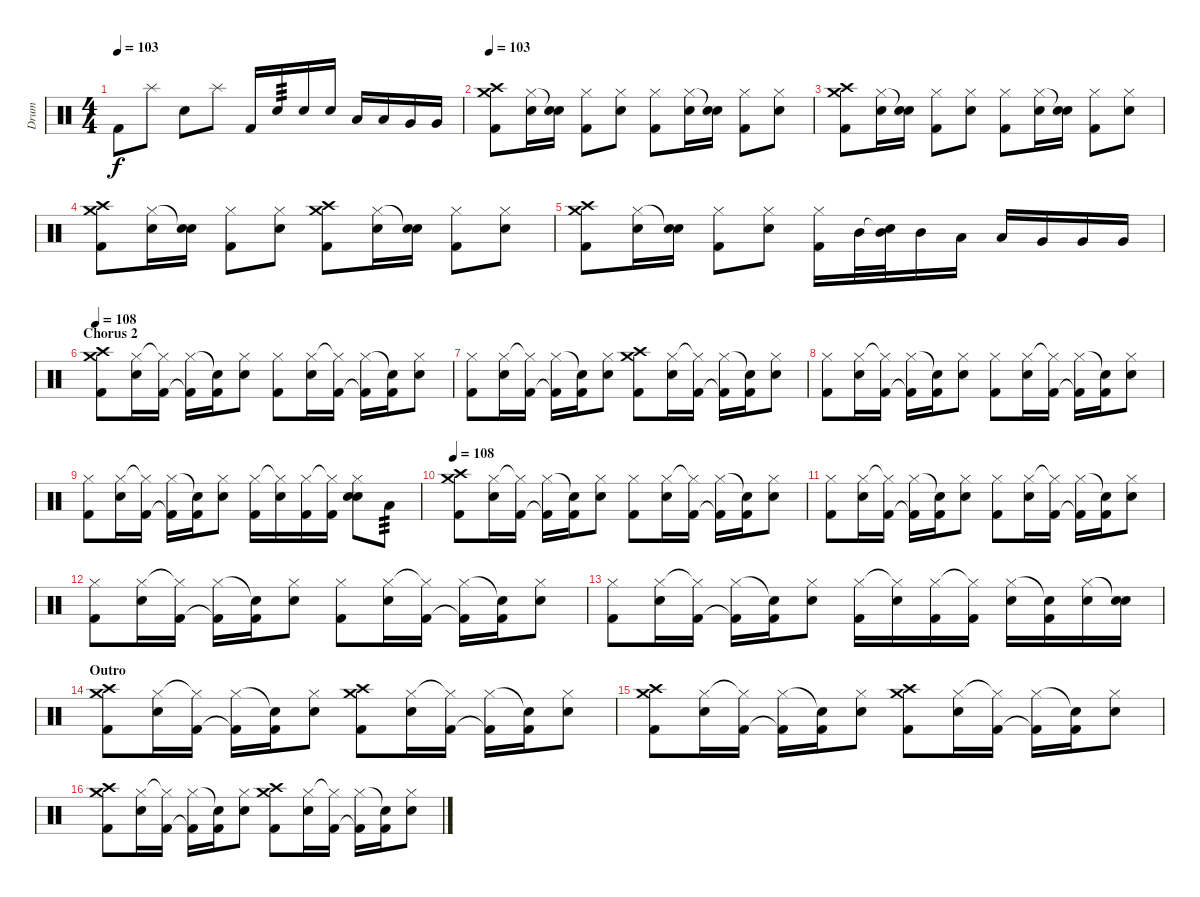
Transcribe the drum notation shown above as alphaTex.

\track ("Drum" "Drum") {instrument percussion}
\staff {score}
\articulation defaults
\ts (4 4)
\tempo 103
\clef neutral
\ks c "Kick (hit) 2".8{dy f} "Splash (hit)".8 "Electric Snare (hit)".8 "Splash (hit)".8 "Kick (hit) 2".16 "Electric Snare (hit)".16{tp 3} "Electric Snare (hit)".16 "Electric Snare (hit)".16 "Low Tom (hit)".16 "Low Tom (hit)".16 "Very Low Tom (hit)".16 "Very Low Tom (hit)".16
|
\tempo 103
("Crash medium (hit)" "Crash high (hit)" "Kick (hit) 2").8 ("Hi-Hat (closed)" "Electric Snare (hit)").16 ("Snare (hit)"{t} "Electric Snare (hit)").16 ("Hi-Hat (closed)" "Kick (hit) 2").8 ("Hi-Hat (closed)" "Electric Snare (hit)").8 ("Hi-Hat (closed)" "Kick (hit) 2").8 ("Hi-Hat (closed)" "Electric Snare (hit)").16 ("Snare (hit)"{t} "Electric Snare (hit)").16 ("Hi-Hat (closed)" "Kick (hit) 2").8 ("Hi-Hat (closed)" "Electric Snare (hit)").8 |
("Crash medium (hit)" "Crash high (hit)" "Kick (hit) 2").8 ("Hi-Hat (closed)" "Electric Snare (hit)").16 ("Snare (hit)"{t} "Electric Snare (hit)").16 ("Hi-Hat (closed)" "Kick (hit) 2").8 ("Hi-Hat (closed)" "Electric Snare (hit)").8 ("Hi-Hat (closed)" "Kick (hit) 2").8 ("Hi-Hat (closed)" "Electric Snare (hit)").16 ("Snare (hit)"{t} "Electric Snare (hit)").16 ("Hi-Hat (closed)" "Kick (hit) 2").8 ("Hi-Hat (closed)" "Electric Snare (hit)").8 |
("Crash medium (hit)" "Crash high (hit)" "Kick (hit) 2").8 ("Hi-Hat (closed)" "Electric Snare (hit)").16 ("Snare (hit)"{t} "Electric Snare (hit)").16 ("Hi-Hat (closed)" "Kick (hit) 2").8 ("Hi-Hat (closed)" "Electric Snare (hit)").8 ("Crash medium (hit)" "Crash high (hit)" "Kick (hit) 2").8 ("Hi-Hat (closed)" "Electric Snare (hit)").16 ("Snare (hit)"{t} "Electric Snare (hit)").16 ("Hi-Hat (closed)" "Kick (hit) 2").8 ("Hi-Hat (closed)" "Electric Snare (hit)").8 |
("Crash medium (hit)" "Crash high (hit)" "Kick (hit) 2").8 ("Hi-Hat (closed)" "Electric Snare (hit)").16 ("Snare (hit)"{t} "Electric Snare (hit)").16 ("Hi-Hat (closed)" "Kick (hit) 2").8 ("Hi-Hat (closed)" "Electric Snare (hit)").8 ("Hi-Hat (closed)" "Kick (hit) 2").16 "Mid Tom (hit)".32 ("Snare (hit)"{t} "Mid Tom (hit)").32 "Mid Tom (hit)".16 "Low Tom (hit)".16 "Low Tom (hit)".16 "Very Low Tom (hit)".16 "Very Low Tom (hit)".16 "Very Low Tom (hit)".16 |
\section ("" "Chorus 2")
\tempo 108
("Crash medium (hit)" "Crash high (hit)" "Kick (hit) 2").8 ("Hi-Hat (closed)" "Electric Snare (hit)").16 ("Hi-Hat (closed)"{t} "Kick (hit) 2").16 ("Hi-Hat (closed)" "Kick (hit) 2"{t}).16 ("Snare (hit)"{t} "Kick (hit) 2").16 ("Hi-Hat (closed)" "Electric Snare (hit)").8 ("Hi-Hat (closed)" "Kick (hit) 2").8 ("Hi-Hat (closed)" "Electric Snare (hit)").16 ("Hi-Hat (closed)"{t} "Kick (hit) 2").16 ("Hi-Hat (closed)" "Kick (hit) 2"{t}).16 ("Snare (hit)"{t} "Kick (hit) 2").16 ("Hi-Hat (closed)" "Electric Snare (hit)").8 |
("Hi-Hat (closed)" "Kick (hit) 2").8 ("Hi-Hat (closed)" "Electric Snare (hit)").16 ("Hi-Hat (closed)"{t} "Kick (hit) 2").16 ("Hi-Hat (closed)" "Kick (hit) 2"{t}).16 ("Snare (hit)"{t} "Kick (hit) 2").16 ("Hi-Hat (closed)" "Electric Snare (hit)").8 ("Crash medium (hit)" "Crash high (hit)" "Kick (hit) 2").8 ("Hi-Hat (closed)" "Electric Snare (hit)").16 ("Hi-Hat (closed)"{t} "Kick (hit) 2").16 ("Hi-Hat (closed)" "Kick (hit) 2"{t}).16 ("Snare (hit)"{t} "Kick (hit) 2").16 ("Hi-Hat (closed)" "Electric Snare (hit)").8 |
("Hi-Hat (closed)" "Kick (hit) 2").8 ("Hi-Hat (closed)" "Electric Snare (hit)").16 ("Hi-Hat (closed)"{t} "Kick (hit) 2").16 ("Hi-Hat (closed)" "Kick (hit) 2"{t}).16 ("Snare (hit)"{t} "Kick (hit) 2").16 ("Hi-Hat (closed)" "Electric Snare (hit)").8 ("Hi-Hat (closed)" "Kick (hit) 2").8 ("Hi-Hat (closed)" "Electric Snare (hit)").16 ("Hi-Hat (closed)"{t} "Kick (hit) 2").16 ("Hi-Hat (closed)" "Kick (hit) 2"{t}).16 ("Snare (hit)"{t} "Kick (hit) 2").16 ("Hi-Hat (closed)" "Electric Snare (hit)").8 |
("Hi-Hat (closed)" "Kick (hit) 2").8 ("Hi-Hat (closed)" "Electric Snare (hit)").16 ("Hi-Hat (closed)"{t} "Kick (hit) 2").16 ("Hi-Hat (closed)" "Kick (hit) 2"{t}).16 ("Snare (hit)"{t} "Kick (hit) 2").16 ("Hi-Hat (closed)" "Electric Snare (hit)").8 ("Hi-Hat (closed)" "Kick (hit) 2").16 ("Hi-Hat (closed)"{t} "Electric Snare (hit)").16 ("Hi-Hat (closed)" "Kick (hit) 2").16 ("Hi-Hat (closed)"{t} "Kick (hit) 2").16 ("Hi-Hat (closed)" "Electric Snare (hit)" "Electric Snare (hit)").8 "Low Tom (hit)".8{tp 3} |
\tempo 108
("Crash medium (hit)" "Crash high (hit)" "Kick (hit) 2").8 ("Hi-Hat (closed)" "Electric Snare (hit)").16 ("Hi-Hat (closed)"{t} "Kick (hit) 2").16 ("Hi-Hat (closed)" "Kick (hit) 2"{t}).16 ("Snare (hit)"{t} "Kick (hit) 2").16 ("Hi-Hat (closed)" "Electric Snare (hit)").8 ("Hi-Hat (closed)" "Kick (hit) 2").8 ("Hi-Hat (closed)" "Electric Snare (hit)").16 ("Hi-Hat (closed)"{t} "Kick (hit) 2").16 ("Hi-Hat (closed)" "Kick (hit) 2"{t}).16 ("Snare (hit)"{t} "Kick (hit) 2").16 ("Hi-Hat (closed)" "Electric Snare (hit)").8 |
("Hi-Hat (closed)" "Kick (hit) 2").8 ("Hi-Hat (closed)" "Electric Snare (hit)").16 ("Hi-Hat (closed)"{t} "Kick (hit) 2").16 ("Hi-Hat (closed)" "Kick (hit) 2"{t}).16 ("Snare (hit)"{t} "Kick (hit) 2").16 ("Hi-Hat (closed)" "Electric Snare (hit)").8 ("Hi-Hat (closed)" "Kick (hit) 2").8 ("Hi-Hat (closed)" "Electric Snare (hit)").16 ("Hi-Hat (closed)"{t} "Kick (hit) 2").16 ("Hi-Hat (closed)" "Kick (hit) 2"{t}).16 ("Snare (hit)"{t} "Kick (hit) 2").16 ("Hi-Hat (closed)" "Electric Snare (hit)").8 |
("Hi-Hat (closed)" "Kick (hit) 2").8 ("Hi-Hat (closed)" "Electric Snare (hit)").16 ("Hi-Hat (closed)"{t} "Kick (hit) 2").16 ("Hi-Hat (closed)" "Kick (hit) 2"{t}).16 ("Snare (hit)"{t} "Kick (hit) 2").16 ("Hi-Hat (closed)" "Electric Snare (hit)").8 ("Hi-Hat (closed)" "Kick (hit) 2").8 ("Hi-Hat (closed)" "Electric Snare (hit)").16 ("Hi-Hat (closed)"{t} "Kick (hit) 2").16 ("Hi-Hat (closed)" "Kick (hit) 2"{t}).16 ("Snare (hit)"{t} "Kick (hit) 2").16 ("Hi-Hat (closed)" "Electric Snare (hit)").8 |
("Hi-Hat (closed)" "Kick (hit) 2").8 ("Hi-Hat (closed)" "Electric Snare (hit)").16 ("Hi-Hat (closed)"{t} "Kick (hit) 2").16 ("Hi-Hat (closed)" "Kick (hit) 2"{t}).16 ("Snare (hit)"{t} "Kick (hit) 2").16 ("Hi-Hat (closed)" "Electric Snare (hit)").8 ("Hi-Hat (closed)" "Kick (hit) 2").16 ("Hi-Hat (closed)"{t} "Electric Snare (hit)").16 ("Hi-Hat (closed)" "Kick (hit) 2").16 ("Hi-Hat (closed)"{t} "Kick (hit) 2").16 ("Hi-Hat (closed)" "Electric Snare (hit)").16 ("Snare (hit)"{t} "Kick (hit) 2").16 ("Hi-Hat (closed)" "Electric Snare (hit)").16 ("Snare (hit)"{t} "Electric Snare (hit)").16 |
\section ("" "Outro")
("Crash medium (hit)" "Crash high (hit)" "Kick (hit) 2").8 ("Hi-Hat (closed)" "Electric Snare (hit)").16 ("Hi-Hat (closed)"{t} "Kick (hit) 2").16 ("Hi-Hat (closed)" "Kick (hit) 2"{t}).16 ("Snare (hit)"{t} "Kick (hit) 2").16 ("Hi-Hat (closed)" "Electric Snare (hit)").8 ("Crash medium (hit)" "Kick (hit) 2" "Crash high (hit)").8 ("Hi-Hat (closed)" "Electric Snare (hit)").16 ("Hi-Hat (closed)"{t} "Kick (hit) 2").16 ("Hi-Hat (closed)" "Kick (hit) 2"{t}).16 ("Snare (hit)"{t} "Kick (hit) 2").16 ("Hi-Hat (closed)" "Electric Snare (hit)").8 |
("Crash medium (hit)" "Crash high (hit)" "Kick (hit) 2").8 ("Hi-Hat (closed)" "Electric Snare (hit)").16 ("Hi-Hat (closed)"{t} "Kick (hit) 2").16 ("Hi-Hat (closed)" "Kick (hit) 2"{t}).16 ("Snare (hit)"{t} "Kick (hit) 2").16 ("Hi-Hat (closed)" "Electric Snare (hit)").8 ("Crash medium (hit)" "Kick (hit) 2" "Crash high (hit)").8 ("Hi-Hat (closed)" "Electric Snare (hit)").16 ("Hi-Hat (closed)"{t} "Kick (hit) 2").16 ("Hi-Hat (closed)" "Kick (hit) 2"{t}).16 ("Snare (hit)"{t} "Kick (hit) 2").16 ("Hi-Hat (closed)" "Electric Snare (hit)").8 |
("Crash medium (hit)" "Crash high (hit)" "Kick (hit) 2").8 ("Hi-Hat (closed)" "Electric Snare (hit)").16 ("Hi-Hat (closed)"{t} "Kick (hit) 2").16 ("Hi-Hat (closed)" "Kick (hit) 2"{t}).16 ("Snare (hit)"{t} "Kick (hit) 2").16 ("Hi-Hat (closed)" "Electric Snare (hit)").8 ("Crash medium (hit)" "Kick (hit) 2" "Crash high (hit)").8 ("Hi-Hat (closed)" "Electric Snare (hit)").16 ("Hi-Hat (closed)"{t} "Kick (hit) 2").16 ("Hi-Hat (closed)" "Kick (hit) 2"{t}).16 ("Snare (hit)"{t} "Kick (hit) 2").16 ("Hi-Hat (closed)" "Electric Snare (hit)").8
